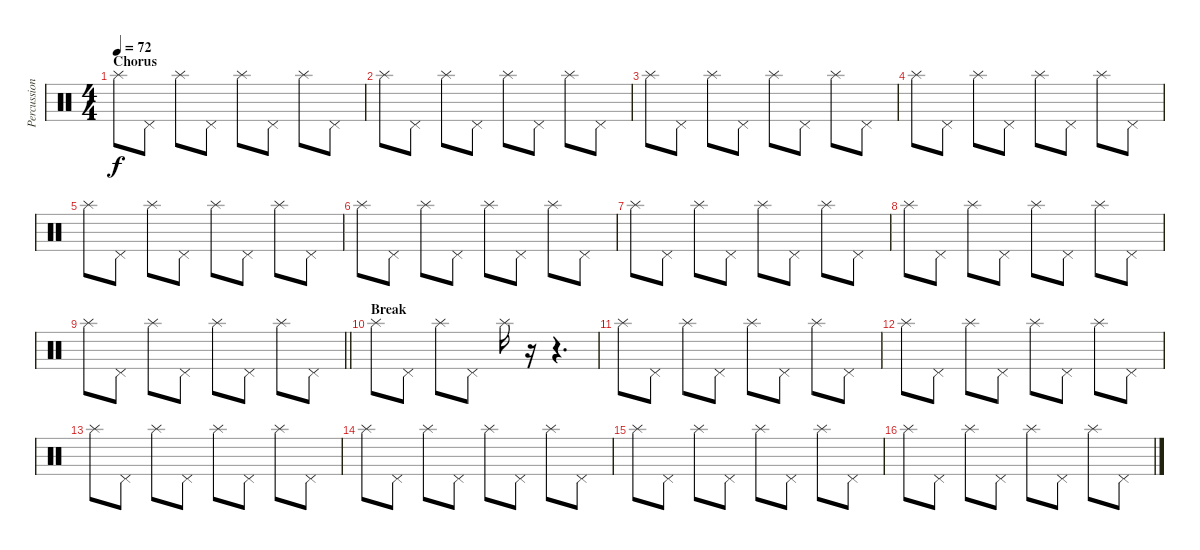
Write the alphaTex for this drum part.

\track ("Percussion" "Percussion") {instrument percussion}
\staff {score}
\articulation defaults
\ts (4 4)
\section ("" "Chorus")
\tempo 72
\clef neutral
\ks c "Splash (hit)".8{dy f} "Pedal Hi-Hat (hit)".8 "Splash (hit)".8 "Pedal Hi-Hat (hit)".8 "Splash (hit)".8 "Pedal Hi-Hat (hit)".8 "Splash (hit)".8 "Pedal Hi-Hat (hit)".8
|
"Splash (hit)".8 "Pedal Hi-Hat (hit)".8 "Splash (hit)".8 "Pedal Hi-Hat (hit)".8 "Splash (hit)".8 "Pedal Hi-Hat (hit)".8 "Splash (hit)".8 "Pedal Hi-Hat (hit)".8 |
"Splash (hit)".8 "Pedal Hi-Hat (hit)".8 "Splash (hit)".8 "Pedal Hi-Hat (hit)".8 "Splash (hit)".8 "Pedal Hi-Hat (hit)".8 "Splash (hit)".8 "Pedal Hi-Hat (hit)".8 |
"Splash (hit)".8 "Pedal Hi-Hat (hit)".8 "Splash (hit)".8 "Pedal Hi-Hat (hit)".8 "Splash (hit)".8 "Pedal Hi-Hat (hit)".8 "Splash (hit)".8 "Pedal Hi-Hat (hit)".8 |
"Splash (hit)".8 "Pedal Hi-Hat (hit)".8 "Splash (hit)".8 "Pedal Hi-Hat (hit)".8 "Splash (hit)".8 "Pedal Hi-Hat (hit)".8 "Splash (hit)".8 "Pedal Hi-Hat (hit)".8 |
"Splash (hit)".8 "Pedal Hi-Hat (hit)".8 "Splash (hit)".8 "Pedal Hi-Hat (hit)".8 "Splash (hit)".8 "Pedal Hi-Hat (hit)".8 "Splash (hit)".8 "Pedal Hi-Hat (hit)".8 |
"Splash (hit)".8 "Pedal Hi-Hat (hit)".8 "Splash (hit)".8 "Pedal Hi-Hat (hit)".8 "Splash (hit)".8 "Pedal Hi-Hat (hit)".8 "Splash (hit)".8 "Pedal Hi-Hat (hit)".8 |
"Splash (hit)".8 "Pedal Hi-Hat (hit)".8 "Splash (hit)".8 "Pedal Hi-Hat (hit)".8 "Splash (hit)".8 "Pedal Hi-Hat (hit)".8 "Splash (hit)".8 "Pedal Hi-Hat (hit)".8 |
\barLineRight lightlight "Splash (hit)".8 "Pedal Hi-Hat (hit)".8 "Splash (hit)".8 "Pedal Hi-Hat (hit)".8 "Splash (hit)".8 "Pedal Hi-Hat (hit)".8 "Splash (hit)".8 "Pedal Hi-Hat (hit)".8
|
\section ("" "Break")
"Splash (hit)".8 "Pedal Hi-Hat (hit)".8 "Splash (hit)".8 "Pedal Hi-Hat (hit)".8 "Splash (hit)".16 r.16 r.4{d} |
"Splash (hit)".8 "Pedal Hi-Hat (hit)".8 "Splash (hit)".8 "Pedal Hi-Hat (hit)".8 "Splash (hit)".8 "Pedal Hi-Hat (hit)".8 "Splash (hit)".8 "Pedal Hi-Hat (hit)".8 |
"Splash (hit)".8 "Pedal Hi-Hat (hit)".8 "Splash (hit)".8 "Pedal Hi-Hat (hit)".8 "Splash (hit)".8 "Pedal Hi-Hat (hit)".8 "Splash (hit)".8 "Pedal Hi-Hat (hit)".8 |
"Splash (hit)".8 "Pedal Hi-Hat (hit)".8 "Splash (hit)".8 "Pedal Hi-Hat (hit)".8 "Splash (hit)".8 "Pedal Hi-Hat (hit)".8 "Splash (hit)".8 "Pedal Hi-Hat (hit)".8 |
"Splash (hit)".8 "Pedal Hi-Hat (hit)".8 "Splash (hit)".8 "Pedal Hi-Hat (hit)".8 "Splash (hit)".8 "Pedal Hi-Hat (hit)".8 "Splash (hit)".8 "Pedal Hi-Hat (hit)".8 |
"Splash (hit)".8 "Pedal Hi-Hat (hit)".8 "Splash (hit)".8 "Pedal Hi-Hat (hit)".8 "Splash (hit)".8 "Pedal Hi-Hat (hit)".8 "Splash (hit)".8 "Pedal Hi-Hat (hit)".8 |
"Splash (hit)".8 "Pedal Hi-Hat (hit)".8 "Splash (hit)".8 "Pedal Hi-Hat (hit)".8 "Splash (hit)".8 "Pedal Hi-Hat (hit)".8 "Splash (hit)".8 "Pedal Hi-Hat (hit)".8
